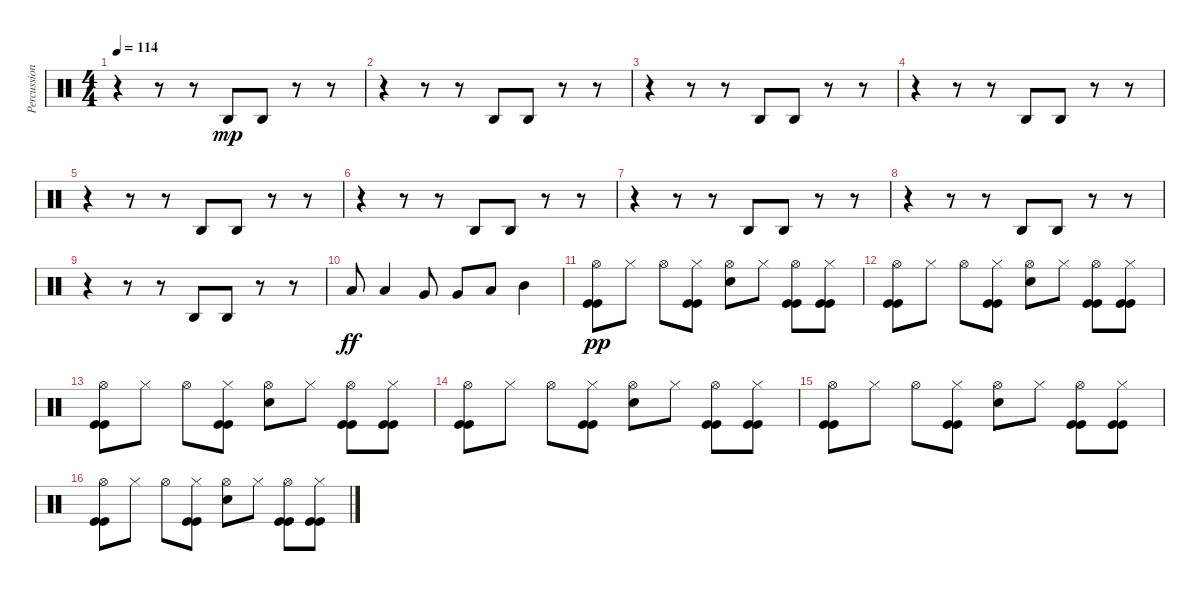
\track ("Percussion" "Percussion") {instrument percussion}
\staff {score}
\articulation defaults
\ts (4 4)
\tempo 114
\clef neutral
\ks c
r.4{dy mp} r.8 r.8 "Agogo high (hit)".8 "Agogo high (hit)".8 r.8 r.8 |
r.4 r.8 r.8 "Agogo high (hit)".8 "Agogo high (hit)".8 r.8 r.8 |
r.4 r.8 r.8 "Agogo high (hit)".8 "Agogo high (hit)".8 r.8 r.8 |
r.4 r.8 r.8 "Agogo high (hit)".8 "Agogo high (hit)".8 r.8 r.8 |
r.4 r.8 r.8 "Agogo high (hit)".8 "Agogo high (hit)".8 r.8 r.8 |
r.4 r.8 r.8 "Agogo high (hit)".8 "Agogo high (hit)".8 r.8 r.8 |
r.4 r.8 r.8 "Agogo high (hit)".8 "Agogo high (hit)".8 r.8 r.8 |
r.4 r.8 r.8 "Agogo high (hit)".8 "Agogo high (hit)".8 r.8 r.8 |
r.4 r.8 r.8 "Agogo high (hit)".8 "Agogo high (hit)".8 r.8 r.8 |
"Low Floor Tom (hit)".8{dy ff} "Low Floor Tom (hit)".4 "Very Low Tom (hit)".8 "Very Low Tom (hit)".8 "Low Tom (hit)".8 "Mid Tom (hit)".4 |
("Kick (hit)" "Hi-Hat (open)" "Kick (hit)").8{dy pp} "Hi-Hat (closed)".8 "Hi-Hat (open)".8 ("Kick (hit)" "Hi-Hat (closed)" "Kick (hit)").8 ("Snare (hit) 2" "Hi-Hat (open)").8 "Hi-Hat (closed)".8 ("Kick (hit)" "Hi-Hat (open)" "Kick (hit)").8 ("Kick (hit)" "Hi-Hat (closed)" "Kick (hit)").8 |
("Kick (hit)" "Hi-Hat (open)" "Kick (hit)").8 "Hi-Hat (closed)".8 "Hi-Hat (open)".8 ("Kick (hit)" "Hi-Hat (closed)" "Kick (hit)").8 ("Snare (hit) 2" "Hi-Hat (open)").8 "Hi-Hat (closed)".8 ("Kick (hit)" "Hi-Hat (open)" "Kick (hit)").8 ("Kick (hit)" "Hi-Hat (closed)" "Kick (hit)").8 |
("Kick (hit)" "Hi-Hat (open)" "Kick (hit)").8 "Hi-Hat (closed)".8 "Hi-Hat (open)".8 ("Kick (hit)" "Hi-Hat (closed)" "Kick (hit)").8 ("Snare (hit) 2" "Hi-Hat (open)").8 "Hi-Hat (closed)".8 ("Kick (hit)" "Hi-Hat (open)" "Kick (hit)").8 ("Kick (hit)" "Hi-Hat (closed)" "Kick (hit)").8 |
("Kick (hit)" "Hi-Hat (open)" "Kick (hit)").8 "Hi-Hat (closed)".8 "Hi-Hat (open)".8 ("Kick (hit)" "Hi-Hat (closed)" "Kick (hit)").8 ("Snare (hit) 2" "Hi-Hat (open)").8 "Hi-Hat (closed)".8 ("Kick (hit)" "Hi-Hat (open)" "Kick (hit)").8 ("Kick (hit)" "Hi-Hat (closed)" "Kick (hit)").8 |
("Kick (hit)" "Hi-Hat (open)" "Kick (hit)").8 "Hi-Hat (closed)".8 "Hi-Hat (open)".8 ("Kick (hit)" "Hi-Hat (closed)" "Kick (hit)").8 ("Snare (hit) 2" "Hi-Hat (open)").8 "Hi-Hat (closed)".8 ("Kick (hit)" "Hi-Hat (open)" "Kick (hit)").8 ("Kick (hit)" "Hi-Hat (closed)" "Kick (hit)").8 |
("Kick (hit)" "Hi-Hat (open)" "Kick (hit)").8 "Hi-Hat (closed)".8 "Hi-Hat (open)".8 ("Kick (hit)" "Hi-Hat (closed)" "Kick (hit)").8 ("Snare (hit) 2" "Hi-Hat (open)").8 "Hi-Hat (closed)".8 ("Kick (hit)" "Hi-Hat (open)" "Kick (hit)").8 ("Kick (hit)" "Hi-Hat (closed)" "Kick (hit)").8
